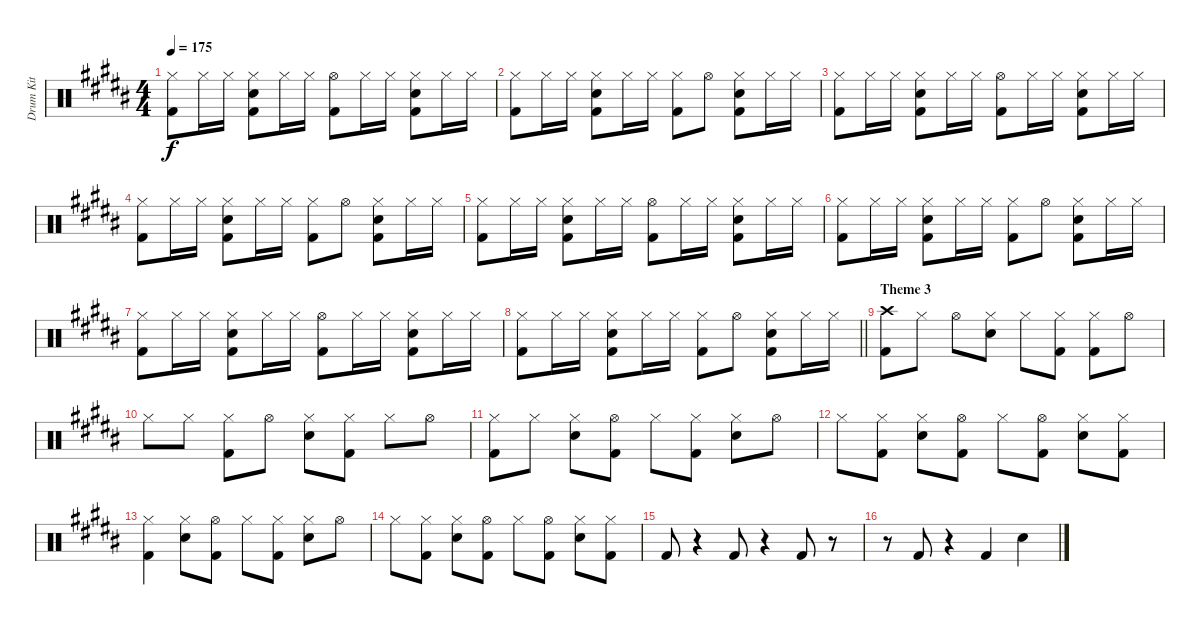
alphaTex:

\track ("Drum Kit" "Drum Kit") {instrument percussion}
\staff {score}
\articulation defaults
\ts (4 4)
\tempo 175
\clef neutral
\ks g#minor
("Hi-Hat (closed)" "Kick (hit) 2").8{dy f} "Hi-Hat (closed)".16 "Hi-Hat (closed)".16 ("Hi-Hat (closed)" "Snare (hit) 2" "Kick (hit) 2").8 "Hi-Hat (closed)".16 "Hi-Hat (closed)".16 ("Hi-Hat (open)" "Kick (hit) 2").8 "Hi-Hat (closed)".16 "Hi-Hat (closed)".16 ("Hi-Hat (closed)" "Snare (hit) 2" "Kick (hit) 2").8 "Hi-Hat (closed)".16 "Hi-Hat (closed)".16 |
("Hi-Hat (closed)" "Kick (hit) 2").8 "Hi-Hat (closed)".16 "Hi-Hat (closed)".16 ("Hi-Hat (closed)" "Snare (hit) 2" "Kick (hit) 2").8 "Hi-Hat (closed)".16 "Hi-Hat (closed)".16 ("Hi-Hat (closed)" "Kick (hit) 2").8 "Hi-Hat (open)".8 ("Hi-Hat (closed)" "Snare (hit) 2" "Kick (hit) 2").8 "Hi-Hat (closed)".16 "Hi-Hat (closed)".16 |
("Hi-Hat (closed)" "Kick (hit) 2").8 "Hi-Hat (closed)".16 "Hi-Hat (closed)".16 ("Hi-Hat (closed)" "Snare (hit) 2" "Kick (hit) 2").8 "Hi-Hat (closed)".16 "Hi-Hat (closed)".16 ("Hi-Hat (open)" "Kick (hit) 2").8 "Hi-Hat (closed)".16 "Hi-Hat (closed)".16 ("Hi-Hat (closed)" "Snare (hit) 2" "Kick (hit) 2").8 "Hi-Hat (closed)".16 "Hi-Hat (closed)".16 |
\ks b
("Hi-Hat (closed)" "Kick (hit) 2").8 "Hi-Hat (closed)".16 "Hi-Hat (closed)".16 ("Hi-Hat (closed)" "Snare (hit) 2" "Kick (hit) 2").8 "Hi-Hat (closed)".16 "Hi-Hat (closed)".16 ("Hi-Hat (closed)" "Kick (hit) 2").8 "Hi-Hat (open)".8 ("Hi-Hat (closed)" "Snare (hit) 2" "Kick (hit) 2").8 "Hi-Hat (closed)".16 "Hi-Hat (closed)".16 |
\ks g#minor
("Hi-Hat (closed)" "Kick (hit) 2").8 "Hi-Hat (closed)".16 "Hi-Hat (closed)".16 ("Hi-Hat (closed)" "Snare (hit) 2" "Kick (hit) 2").8 "Hi-Hat (closed)".16 "Hi-Hat (closed)".16 ("Hi-Hat (open)" "Kick (hit) 2").8 "Hi-Hat (closed)".16 "Hi-Hat (closed)".16 ("Hi-Hat (closed)" "Snare (hit) 2" "Kick (hit) 2").8 "Hi-Hat (closed)".16 "Hi-Hat (closed)".16 |
\ks b
("Hi-Hat (closed)" "Kick (hit) 2").8 "Hi-Hat (closed)".16 "Hi-Hat (closed)".16 ("Hi-Hat (closed)" "Snare (hit) 2" "Kick (hit) 2").8 "Hi-Hat (closed)".16 "Hi-Hat (closed)".16 ("Hi-Hat (closed)" "Kick (hit) 2").8 "Hi-Hat (open)".8 ("Hi-Hat (closed)" "Snare (hit) 2" "Kick (hit) 2").8 "Hi-Hat (closed)".16 "Hi-Hat (closed)".16 |
\ks g#minor
("Hi-Hat (closed)" "Kick (hit) 2").8 "Hi-Hat (closed)".16 "Hi-Hat (closed)".16 ("Hi-Hat (closed)" "Snare (hit) 2" "Kick (hit) 2").8 "Hi-Hat (closed)".16 "Hi-Hat (closed)".16 ("Hi-Hat (open)" "Kick (hit) 2").8 "Hi-Hat (closed)".16 "Hi-Hat (closed)".16 ("Hi-Hat (closed)" "Snare (hit) 2" "Kick (hit) 2").8 "Hi-Hat (closed)".16 "Hi-Hat (closed)".16 |
\barLineRight lightlight
\ks b
("Hi-Hat (closed)" "Kick (hit) 2").8 "Hi-Hat (closed)".16 "Hi-Hat (closed)".16 ("Hi-Hat (closed)" "Snare (hit) 2" "Kick (hit) 2").8 "Hi-Hat (closed)".16 "Hi-Hat (closed)".16 ("Hi-Hat (closed)" "Kick (hit) 2").8 "Hi-Hat (open)".8 ("Hi-Hat (closed)" "Snare (hit) 2" "Kick (hit) 2").8 "Hi-Hat (closed)".16 "Hi-Hat (closed)".16 |
\section ("" "Theme 3")
\ks g#minor
("Crash high (hit)" "Kick (hit) 2").8 "Hi-Hat (closed)".8 "Hi-Hat (open)".8 ("Hi-Hat (closed)" "Snare (hit) 2").8 "Hi-Hat (closed)".8 ("Hi-Hat (closed)" "Kick (hit) 2").8 ("Hi-Hat (closed)" "Kick (hit) 2").8 "Hi-Hat (open)".8 |
"Hi-Hat (closed)".8 "Hi-Hat (closed)".8 ("Hi-Hat (closed)" "Kick (hit) 2").8 "Hi-Hat (open)".8 ("Hi-Hat (closed)" "Snare (hit) 2").8 ("Hi-Hat (closed)" "Kick (hit) 2").8 "Hi-Hat (closed)".8 "Hi-Hat (open)".8 |
("Hi-Hat (closed)" "Kick (hit) 2").8 "Hi-Hat (closed)".8 ("Hi-Hat (closed)" "Snare (hit) 2").8 ("Hi-Hat (open)" "Kick (hit) 2").8 "Hi-Hat (closed)".8 ("Hi-Hat (closed)" "Kick (hit) 2").8 ("Hi-Hat (closed)" "Snare (hit) 2").8 "Hi-Hat (open)".8 |
\ks b "Hi-Hat (closed)".8
("Hi-Hat (closed)" "Kick (hit) 2").8 ("Hi-Hat (closed)" "Snare (hit) 2").8 ("Hi-Hat (open)" "Kick (hit) 2").8 "Hi-Hat (closed)".8 ("Hi-Hat (open)" "Kick (hit) 2").8 ("Hi-Hat (closed)" "Snare (hit) 2").8 ("Hi-Hat (closed)" "Kick (hit) 2").8 |
\ks g#minor
("Hi-Hat (closed)" "Kick (hit) 2").4 ("Hi-Hat (closed)" "Snare (hit) 2").8 ("Hi-Hat (open)" "Kick (hit) 2").8 "Hi-Hat (closed)".8 ("Hi-Hat (closed)" "Kick (hit) 2").8 ("Hi-Hat (closed)" "Snare (hit) 2").8 "Hi-Hat (open)".8 |
"Hi-Hat (closed)".8 ("Hi-Hat (closed)" "Kick (hit) 2").8 ("Hi-Hat (closed)" "Snare (hit) 2").8 ("Hi-Hat (open)" "Kick (hit) 2").8 "Hi-Hat (closed)".8 ("Hi-Hat (open)" "Kick (hit) 2").8 ("Hi-Hat (closed)" "Snare (hit) 2").8 ("Hi-Hat (closed)" "Kick (hit) 2").8 |
"Kick (hit) 2".8 r.4 "Kick (hit) 2".8 r.4 "Kick (hit) 2".8 r.8 |
\ks b
r.8 "Kick (hit) 2".8 r.4 "Kick (hit) 2".4 "Snare (hit) 2".4
